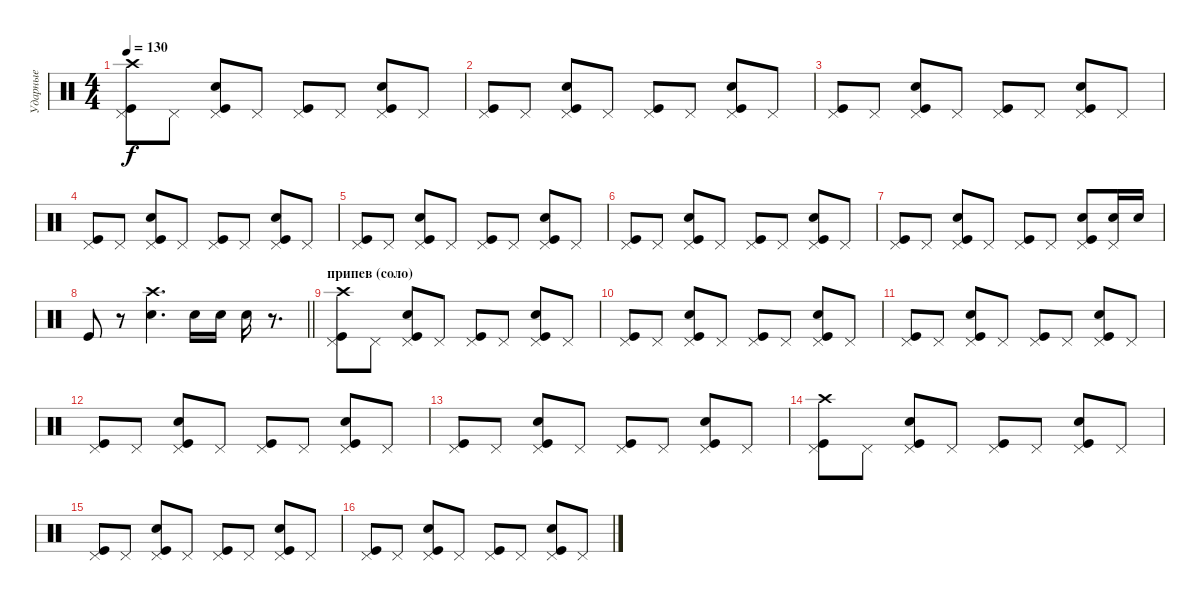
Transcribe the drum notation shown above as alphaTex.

\track ("Ударные" "Ударные") {instrument percussion}
\staff {score}
\articulation defaults
\ts (4 4)
\tempo 130
\clef neutral
\ks c
("Pedal Hi-Hat (hit)" "Kick (hit)" "Crash high (hit)").8{dy f} "Pedal Hi-Hat (hit)".8 ("Pedal Hi-Hat (hit)" "Kick (hit)" "Snare (hit) 2").8 "Pedal Hi-Hat (hit)".8 ("Pedal Hi-Hat (hit)" "Kick (hit)").8 "Pedal Hi-Hat (hit)".8 ("Pedal Hi-Hat (hit)" "Kick (hit)" "Snare (hit) 2").8 "Pedal Hi-Hat (hit)".8 |
("Pedal Hi-Hat (hit)" "Kick (hit)").8 "Pedal Hi-Hat (hit)".8 ("Pedal Hi-Hat (hit)" "Kick (hit)" "Snare (hit) 2").8 "Pedal Hi-Hat (hit)".8 ("Pedal Hi-Hat (hit)" "Kick (hit)").8 "Pedal Hi-Hat (hit)".8 ("Pedal Hi-Hat (hit)" "Kick (hit)" "Snare (hit) 2").8 "Pedal Hi-Hat (hit)".8 |
("Pedal Hi-Hat (hit)" "Kick (hit)").8 "Pedal Hi-Hat (hit)".8 ("Pedal Hi-Hat (hit)" "Kick (hit)" "Snare (hit) 2").8 "Pedal Hi-Hat (hit)".8 ("Pedal Hi-Hat (hit)" "Kick (hit)").8 "Pedal Hi-Hat (hit)".8 ("Pedal Hi-Hat (hit)" "Kick (hit)" "Snare (hit) 2").8 "Pedal Hi-Hat (hit)".8 |
("Pedal Hi-Hat (hit)" "Kick (hit)").8 "Pedal Hi-Hat (hit)".8 ("Pedal Hi-Hat (hit)" "Kick (hit)" "Snare (hit) 2").8 "Pedal Hi-Hat (hit)".8 ("Pedal Hi-Hat (hit)" "Kick (hit)").8 "Pedal Hi-Hat (hit)".8 ("Pedal Hi-Hat (hit)" "Kick (hit)" "Snare (hit) 2").8 "Pedal Hi-Hat (hit)".8 |
("Pedal Hi-Hat (hit)" "Kick (hit)").8 "Pedal Hi-Hat (hit)".8 ("Pedal Hi-Hat (hit)" "Kick (hit)" "Snare (hit) 2").8 "Pedal Hi-Hat (hit)".8 ("Pedal Hi-Hat (hit)" "Kick (hit)").8 "Pedal Hi-Hat (hit)".8 ("Pedal Hi-Hat (hit)" "Kick (hit)" "Snare (hit) 2").8 "Pedal Hi-Hat (hit)".8 |
("Pedal Hi-Hat (hit)" "Kick (hit)").8 "Pedal Hi-Hat (hit)".8 ("Pedal Hi-Hat (hit)" "Kick (hit)" "Snare (hit) 2").8 "Pedal Hi-Hat (hit)".8 ("Pedal Hi-Hat (hit)" "Kick (hit)").8 "Pedal Hi-Hat (hit)".8 ("Pedal Hi-Hat (hit)" "Kick (hit)" "Snare (hit) 2").8 "Pedal Hi-Hat (hit)".8 |
("Pedal Hi-Hat (hit)" "Kick (hit)").8 "Pedal Hi-Hat (hit)".8 ("Pedal Hi-Hat (hit)" "Kick (hit)" "Snare (hit) 2").8 "Pedal Hi-Hat (hit)".8 ("Pedal Hi-Hat (hit)" "Kick (hit)").8 "Pedal Hi-Hat (hit)".8 ("Pedal Hi-Hat (hit)" "Kick (hit)" "Snare (hit) 2").8 ("Pedal Hi-Hat (hit)" "Snare (hit) 2").16 "Snare (hit) 2".16 |
\barLineRight lightlight "Kick (hit)".8
r.8 ("Crash high (hit)" "Snare (hit) 2").4{d} "Snare (hit) 2".16 "Snare (hit) 2".16 "Snare (hit) 2".16 r.8{d} |
\section ("" "припев (соло)")
("Pedal Hi-Hat (hit)" "Kick (hit)" "Crash high (hit)").8 "Pedal Hi-Hat (hit)".8 ("Pedal Hi-Hat (hit)" "Kick (hit)" "Snare (hit) 2").8 "Pedal Hi-Hat (hit)".8 ("Pedal Hi-Hat (hit)" "Kick (hit)").8 "Pedal Hi-Hat (hit)".8 ("Pedal Hi-Hat (hit)" "Kick (hit)" "Snare (hit) 2").8 "Pedal Hi-Hat (hit)".8 |
("Pedal Hi-Hat (hit)" "Kick (hit)").8 "Pedal Hi-Hat (hit)".8 ("Pedal Hi-Hat (hit)" "Kick (hit)" "Snare (hit) 2").8 "Pedal Hi-Hat (hit)".8 ("Pedal Hi-Hat (hit)" "Kick (hit)").8 "Pedal Hi-Hat (hit)".8 ("Pedal Hi-Hat (hit)" "Kick (hit)" "Snare (hit) 2").8 "Pedal Hi-Hat (hit)".8 |
("Pedal Hi-Hat (hit)" "Kick (hit)").8 "Pedal Hi-Hat (hit)".8 ("Pedal Hi-Hat (hit)" "Kick (hit)" "Snare (hit) 2").8 "Pedal Hi-Hat (hit)".8 ("Pedal Hi-Hat (hit)" "Kick (hit)").8 "Pedal Hi-Hat (hit)".8 ("Pedal Hi-Hat (hit)" "Kick (hit)" "Snare (hit) 2").8 "Pedal Hi-Hat (hit)".8 |
("Pedal Hi-Hat (hit)" "Kick (hit)").8 "Pedal Hi-Hat (hit)".8 ("Pedal Hi-Hat (hit)" "Kick (hit)" "Snare (hit) 2").8 "Pedal Hi-Hat (hit)".8 ("Pedal Hi-Hat (hit)" "Kick (hit)").8 "Pedal Hi-Hat (hit)".8 ("Pedal Hi-Hat (hit)" "Kick (hit)" "Snare (hit) 2").8 "Pedal Hi-Hat (hit)".8 |
("Pedal Hi-Hat (hit)" "Kick (hit)").8 "Pedal Hi-Hat (hit)".8 ("Pedal Hi-Hat (hit)" "Kick (hit)" "Snare (hit) 2").8 "Pedal Hi-Hat (hit)".8 ("Pedal Hi-Hat (hit)" "Kick (hit)").8 "Pedal Hi-Hat (hit)".8 ("Pedal Hi-Hat (hit)" "Kick (hit)" "Snare (hit) 2").8 "Pedal Hi-Hat (hit)".8 |
("Pedal Hi-Hat (hit)" "Kick (hit)" "Crash high (hit)").8 "Pedal Hi-Hat (hit)".8 ("Pedal Hi-Hat (hit)" "Kick (hit)" "Snare (hit) 2").8 "Pedal Hi-Hat (hit)".8 ("Pedal Hi-Hat (hit)" "Kick (hit)").8 "Pedal Hi-Hat (hit)".8 ("Pedal Hi-Hat (hit)" "Kick (hit)" "Snare (hit) 2").8 "Pedal Hi-Hat (hit)".8 |
("Pedal Hi-Hat (hit)" "Kick (hit)").8 "Pedal Hi-Hat (hit)".8 ("Pedal Hi-Hat (hit)" "Kick (hit)" "Snare (hit) 2").8 "Pedal Hi-Hat (hit)".8 ("Pedal Hi-Hat (hit)" "Kick (hit)").8 "Pedal Hi-Hat (hit)".8 ("Pedal Hi-Hat (hit)" "Kick (hit)" "Snare (hit) 2").8 "Pedal Hi-Hat (hit)".8 |
("Pedal Hi-Hat (hit)" "Kick (hit)").8 "Pedal Hi-Hat (hit)".8 ("Pedal Hi-Hat (hit)" "Kick (hit)" "Snare (hit) 2").8 "Pedal Hi-Hat (hit)".8 ("Pedal Hi-Hat (hit)" "Kick (hit)").8 "Pedal Hi-Hat (hit)".8 ("Pedal Hi-Hat (hit)" "Kick (hit)" "Snare (hit) 2").8 "Pedal Hi-Hat (hit)".8
